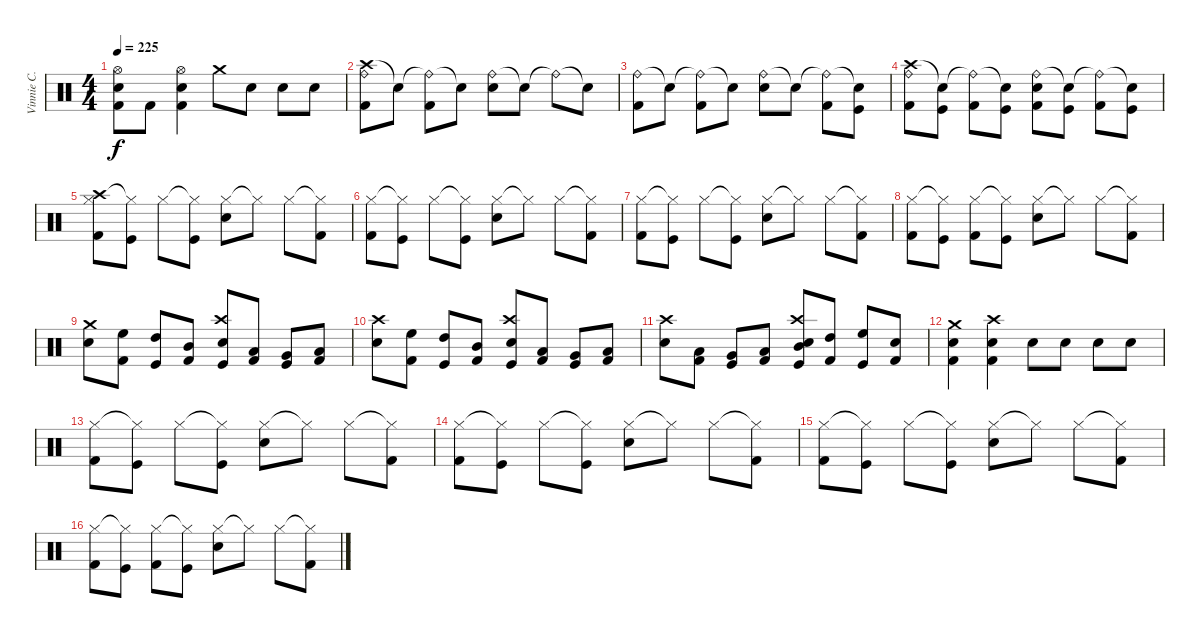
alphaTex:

\track ("Vinnie C." "Vinnie C.") {instrument percussion}
\staff {score}
\articulation defaults
\ts (4 4)
\tempo 225
\clef neutral
\ks c
("Hi-Hat (open)"{t} "Snare (hit)"{t} "Kick (hit) 2"{t}).8{dy f} "Kick (hit) 2".8 ("Hi-Hat (open)" "Electric Snare (hit)" "Kick (hit) 2").4 "Crash medium (hit)".8 "Electric Snare (hit)".8 "Electric Snare (hit)".8 "Electric Snare (hit)".8 |
("Crash high (hit)" "Ride (bell)" "Kick (hit) 2").8 "Snare (hit)"{t}.8 ("Ride (bell)"{t} "Kick (hit) 2").8 "Snare (hit)"{t}.8 ("Ride (bell)" "Electric Snare (hit)").8 "Snare (hit)"{t}.8 "Ride (bell)"{t}.8 "Snare (hit)"{t}.8 |
("Ride (bell)" "Kick (hit) 2").8 "Snare (hit)"{t}.8 ("Ride (bell)"{t} "Kick (hit) 2").8 "Snare (hit)"{t}.8 ("Ride (bell)" "Electric Snare (hit)").8 "Snare (hit)"{t}.8 ("Ride (bell)"{t} "Kick (hit) 2").8 ("Snare (hit)"{t} "Kick (hit)").8 |
("Crash high (hit)" "Ride (bell)" "Kick (hit) 2").8 ("Snare (hit)"{t} "Kick (hit)").8 ("Ride (bell)"{t} "Kick (hit) 2").8 ("Snare (hit)"{t} "Kick (hit)").8 ("Ride (bell)" "Electric Snare (hit)" "Kick (hit) 2").8 ("Snare (hit)"{t} "Kick (hit)").8 ("Ride (bell)"{t} "Kick (hit) 2").8 ("Snare (hit)"{t} "Kick (hit)").8 |
("Crash high (hit)" "Hi-Hat (closed)" "Kick (hit) 2").8 ("Hi-Hat (closed)"{t} "Kick (hit)").8 "Hi-Hat (closed)".8 ("Hi-Hat (closed)"{t} "Kick (hit)").8 ("Hi-Hat (closed)" "Electric Snare (hit)").8 "Hi-Hat (closed)"{t}.8 "Hi-Hat (closed)".8 ("Hi-Hat (closed)"{t} "Kick (hit) 2").8 |
("Hi-Hat (closed)" "Kick (hit) 2").8 ("Hi-Hat (closed)"{t} "Kick (hit)").8 "Hi-Hat (closed)".8 ("Hi-Hat (closed)"{t} "Kick (hit)").8 ("Hi-Hat (closed)" "Electric Snare (hit)").8 "Hi-Hat (closed)"{t}.8 "Hi-Hat (closed)".8 ("Hi-Hat (closed)"{t} "Kick (hit) 2").8 |
("Hi-Hat (closed)" "Kick (hit) 2").8 ("Hi-Hat (closed)"{t} "Kick (hit)").8 "Hi-Hat (closed)".8 ("Hi-Hat (closed)"{t} "Kick (hit)").8 ("Hi-Hat (closed)" "Electric Snare (hit)").8 "Hi-Hat (closed)"{t}.8 "Hi-Hat (closed)".8 ("Hi-Hat (closed)"{t} "Kick (hit) 2").8 |
("Hi-Hat (closed)" "Kick (hit) 2").8 ("Hi-Hat (closed)"{t} "Kick (hit)").8 ("Hi-Hat (closed)" "Kick (hit) 2").8 ("Hi-Hat (closed)"{t} "Kick (hit)").8 ("Hi-Hat (closed)" "Electric Snare (hit)").8 "Hi-Hat (closed)"{t}.8 "Hi-Hat (closed)".8 ("Hi-Hat (closed)"{t} "Kick (hit) 2").8 |
("Crash medium (hit)" "Electric Snare (hit)").8 ("High Floor Tom (hit)" "Kick (hit) 2").8 ("High Tom (hit)" "Kick (hit)").8 ("Mid Tom (hit)" "Kick (hit) 2").8 ("Crash high (hit)" "Electric Snare (hit)" "Kick (hit)").8 ("Low Tom (hit)" "Kick (hit) 2").8 ("Very Low Tom (hit)" "Kick (hit)").8 ("Low Floor Tom (hit)" "Kick (hit) 2").8 |
("Crash high (hit)" "Electric Snare (hit)").8 ("High Floor Tom (hit)" "Kick (hit) 2").8 ("High Tom (hit)" "Kick (hit)").8 ("Mid Tom (hit)" "Kick (hit) 2").8 ("Crash high (hit)" "Electric Snare (hit)" "Kick (hit)").8 ("Low Tom (hit)" "Kick (hit) 2").8 ("Very Low Tom (hit)" "Kick (hit)").8 ("Low Floor Tom (hit)" "Kick (hit) 2").8 |
("Crash high (hit)" "Electric Snare (hit)").8 ("Low Floor Tom (hit)" "Kick (hit) 2").8 ("Very Low Tom (hit)" "Kick (hit)").8 ("Low Tom (hit)" "Kick (hit) 2").8 ("Crash high (hit)" "Mid Tom (hit)" "Electric Snare (hit)" "Kick (hit)").8 ("High Tom (hit)" "Kick (hit) 2").8 ("High Floor Tom (hit)" "Kick (hit)").8 ("Electric Snare (hit)" "Kick (hit) 2").8 |
("Crash medium (hit)" "Electric Snare (hit)" "Kick (hit) 2").4 ("Crash high (hit)" "Electric Snare (hit)" "Kick (hit) 2").4 "Electric Snare (hit)".8 "Electric Snare (hit)".8 "Electric Snare (hit)".8 "Electric Snare (hit)".8 |
("Hi-Hat (closed)" "Kick (hit) 2").8 ("Hi-Hat (closed)"{t} "Kick (hit)").8 "Hi-Hat (closed)".8 ("Hi-Hat (closed)"{t} "Kick (hit)").8 ("Hi-Hat (closed)" "Electric Snare (hit)").8 "Hi-Hat (closed)"{t}.8 "Hi-Hat (closed)".8 ("Hi-Hat (closed)"{t} "Kick (hit) 2").8 |
("Hi-Hat (closed)" "Kick (hit) 2").8 ("Hi-Hat (closed)"{t} "Kick (hit)").8 "Hi-Hat (closed)".8 ("Hi-Hat (closed)"{t} "Kick (hit)").8 ("Hi-Hat (closed)" "Electric Snare (hit)").8 "Hi-Hat (closed)"{t}.8 "Hi-Hat (closed)".8 ("Hi-Hat (closed)"{t} "Kick (hit) 2").8 |
("Hi-Hat (closed)" "Kick (hit) 2").8 ("Hi-Hat (closed)"{t} "Kick (hit)").8 "Hi-Hat (closed)".8 ("Hi-Hat (closed)"{t} "Kick (hit)").8 ("Hi-Hat (closed)" "Electric Snare (hit)").8 "Hi-Hat (closed)"{t}.8 "Hi-Hat (closed)".8 ("Hi-Hat (closed)"{t} "Kick (hit) 2").8 |
("Hi-Hat (closed)" "Kick (hit) 2").8 ("Hi-Hat (closed)"{t} "Kick (hit)").8 ("Hi-Hat (closed)" "Kick (hit) 2").8 ("Hi-Hat (closed)"{t} "Kick (hit)").8 ("Hi-Hat (closed)" "Electric Snare (hit)").8 "Hi-Hat (closed)"{t}.8 "Hi-Hat (closed)".8 ("Hi-Hat (closed)"{t} "Kick (hit) 2").8
